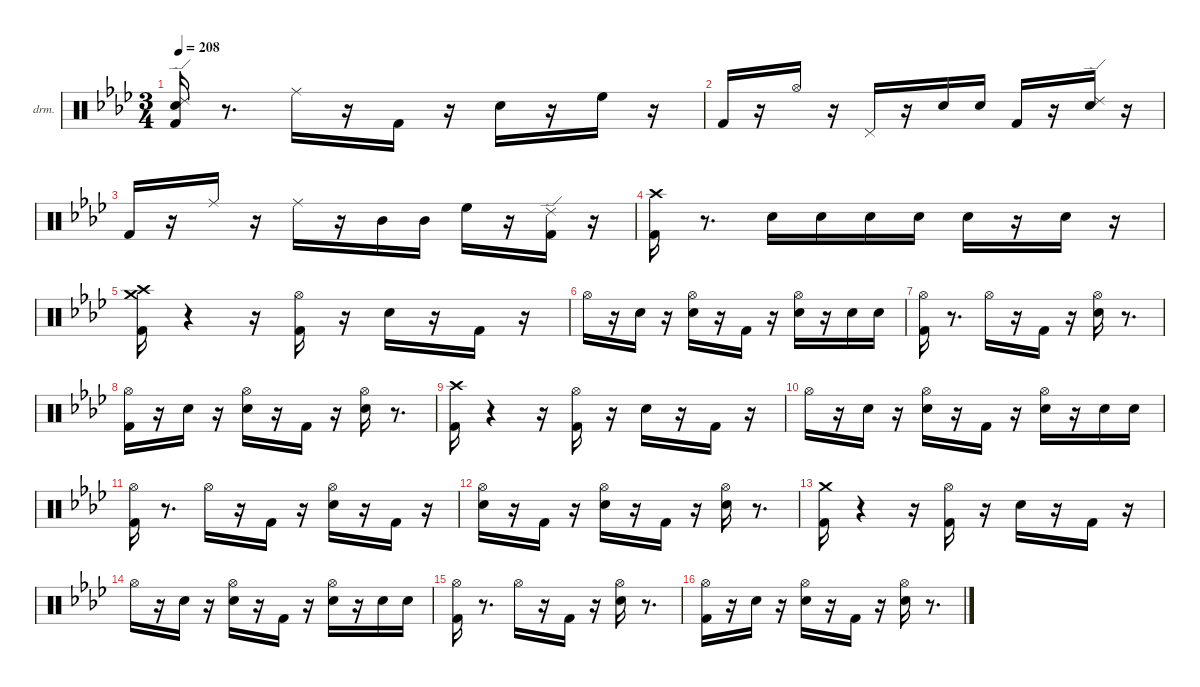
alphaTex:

\hideDynamics
\bracketExtendMode nobrackets
\firstSystemTrackNameOrientation horizontal
\otherSystemsTrackNameOrientation horizontal
\track ("EZdrummer 3" "drm.") {instrument percussion}
\staff {score}
\articulation defaults
\ts (3 4)
\tempo 208
\clef neutral
\ks fminor
("Kick (hit) 2"{acc forcenatural} "Snare (hit) 2"{acc forcenatural} "Ride (edge) 2"{acc forcenatural}).16{dy ff beam Up} r.8{d beam Up} "Ride (middle)"{acc b}.16{beam Down} r.16{beam Down} "Kick (hit) 2"{acc forcenatural}.16{beam Up} r.16{beam Up} "Snare (hit) 2"{acc forcenatural}.16{beam Down} r.16{beam Down} "High Floor Tom (hit)"{acc forcenatural}.16{beam Down} r.16{beam Down} |
"Kick (hit) 2"{acc forcenatural}.16{beam Up} r.16{beam Up} "Hi-Hat (open)"{acc b}.16{dy fff beam Down} r.16{beam Down} "Pedal Hi-Hat (hit)"{acc b}.16{dy ff beam Up} r.16{beam Up} "Snare (hit) 2"{acc forcenatural}.16{dy f beam Down} "Snare (hit) 2"{acc forcenatural}.16{dy pp beam Down} "Kick (hit) 2"{acc forcenatural}.16{dy ff beam Up} r.16{beam Up} ("Snare (hit) 2"{acc forcenatural} "Ride (edge) 2"{acc forcenatural}).16{beam Down} r.16{beam Down} |
"Kick (hit) 2"{acc forcenatural}.16{dy fff beam Up} r.16{beam Up} "Ride (middle)"{acc b}.16{dy mp beam Down} r.16{beam Down} "Ride (middle)"{acc b}.16{dy fff beam Down} r.16{beam Down} "Mid Tom (hit)"{acc forcenatural}.16{dy ff beam Up} "Mid Tom (hit)"{acc forcenatural}.16{dy mf beam Up} "High Floor Tom (hit)"{acc forcenatural}.16{dy ff beam Down} r.16{beam Down} ("Kick (hit) 2"{acc forcenatural} "Ride (edge) 2"{acc forcenatural}).16{dy mp beam Up} r.16{beam Up} |
("Kick (hit) 2"{acc forcenatural} "Crash high (hit)"{acc b}).16{dy fff beam Down} r.8{d beam Down} "Snare (hit) 2"{acc forcenatural}.16{dy ff beam Down} "Snare (hit) 2"{acc forcenatural}.16{dy pp beam Down} "Snare (hit) 2"{acc forcenatural}.16{dy mp beam Down} "Snare (hit) 2"{acc forcenatural}.16{dy pp beam Down} "Snare (hit) 2"{acc forcenatural}.16{dy f beam Down} r.16{beam Down} "Snare (hit) 2"{acc forcenatural}.16{dy ff beam Down} r.16{beam Down} |
("Kick (hit) 2"{acc forcenatural} "Crash high (hit)"{acc b} "Crash medium (hit)"{acc forcenatural}).16{dy fff beam Down} r.4{beam Down} r.16{beam Down} ("Kick (hit) 2"{acc forcenatural} "Hi-Hat (open)"{acc b}).16{dy ff beam Down} r.16{beam Down} "Snare (hit) 2"{acc forcenatural}.16{beam Down} r.16{beam Down} "Kick (hit) 2"{acc forcenatural}.16{beam Up} r.16{beam Up} |
"Hi-Hat (open)"{acc b}.16{beam Down} r.16{beam Down} "Snare (hit) 2"{acc forcenatural}.16{dy mf beam Down} r.16{beam Down} ("Snare (hit) 2"{acc forcenatural} "Hi-Hat (open)"{acc b}).16{dy pp beam Down} r.16{beam Down} "Kick (hit) 2"{acc forcenatural}.16{dy ff beam Up} r.16{beam Up} ("Snare (hit) 2"{acc forcenatural} "Hi-Hat (open)"{acc b}).16{dy fff beam Down} r.16{beam Down} "Snare (hit) 2"{acc forcenatural}.16{dy mp beam Down} "Snare (hit) 2"{acc forcenatural}.16{dy ppp beam Down} |
("Kick (hit) 2"{acc forcenatural} "Hi-Hat (open)"{acc b}).16{dy fff beam Down} r.8{d beam Down} "Hi-Hat (open)"{acc b}.16{dy mp beam Down} r.16{beam Down} "Kick (hit) 2"{acc forcenatural}.16{dy ff beam Up} r.16{beam Up} ("Snare (hit) 2"{acc forcenatural} "Hi-Hat (open)"{acc b}).16{beam Down} r.8{d beam Down} |
("Kick (hit) 2"{acc forcenatural} "Hi-Hat (open)"{acc b}).16{beam Down} r.16{beam Down} "Snare (hit) 2"{acc forcenatural}.16{beam Down} r.16{beam Down} ("Snare (hit) 2"{acc forcenatural} "Hi-Hat (open)"{acc b}).16{dy p beam Down} r.16{beam Down} "Kick (hit) 2"{acc forcenatural}.16{dy ff beam Up} r.16{beam Up} ("Snare (hit) 2"{acc forcenatural} "Hi-Hat (open)"{acc b}).16{beam Down} r.8{d beam Down} |
("Kick (hit) 2"{acc forcenatural} "Crash high (hit)"{acc b}).16{dy fff beam Down} r.4{beam Down} r.16{beam Down} ("Kick (hit) 2"{acc forcenatural} "Hi-Hat (open)"{acc b}).16{dy ff beam Down} r.16{beam Down} "Snare (hit) 2"{acc forcenatural}.16{beam Down} r.16{beam Down} "Kick (hit) 2"{acc forcenatural}.16{beam Up} r.16{beam Up} |
"Hi-Hat (open)"{acc b}.16{beam Down} r.16{beam Down} "Snare (hit) 2"{acc forcenatural}.16{dy mf beam Down} r.16{beam Down} ("Snare (hit) 2"{acc forcenatural} "Hi-Hat (open)"{acc b}).16{dy pp beam Down} r.16{beam Down} "Kick (hit) 2"{acc forcenatural}.16{dy ff beam Up} r.16{beam Up} ("Snare (hit) 2"{acc forcenatural} "Hi-Hat (open)"{acc b}).16{dy fff beam Down} r.16{beam Down} "Snare (hit) 2"{acc forcenatural}.16{dy mp beam Down} "Snare (hit) 2"{acc forcenatural}.16{dy ppp beam Down} |
("Kick (hit) 2"{acc forcenatural} "Hi-Hat (open)"{acc b}).16{dy fff beam Down} r.8{d beam Down} "Hi-Hat (open)"{acc b}.16{dy mp beam Down} r.16{beam Down} "Kick (hit) 2"{acc forcenatural}.16{dy ff beam Up} r.16{beam Up} ("Snare (hit) 2"{acc forcenatural} "Hi-Hat (open)"{acc b}).16{beam Down} r.16{beam Down} "Kick (hit) 2"{acc forcenatural}.16{beam Up} r.16{beam Up} |
("Snare (hit) 2"{acc forcenatural} "Hi-Hat (open)"{acc b}).16{beam Down} r.16{beam Down} "Kick (hit) 2"{acc forcenatural}.16{beam Up} r.16{beam Up} ("Snare (hit) 2"{acc forcenatural} "Hi-Hat (open)"{acc b}).16{beam Down} r.16{beam Down} "Kick (hit) 2"{acc forcenatural}.16{beam Up} r.16{beam Up} ("Snare (hit) 2"{acc forcenatural} "Hi-Hat (open)"{acc b}).16{dy fff beam Down} r.8{d beam Down} |
("Kick (hit) 2"{acc forcenatural} "Crash medium (hit)"{acc forcenatural}).16{beam Down} r.4{beam Down} r.16{beam Down} ("Kick (hit) 2"{acc forcenatural} "Hi-Hat (open)"{acc b}).16{dy ff beam Down} r.16{beam Down} "Snare (hit) 2"{acc forcenatural}.16{beam Down} r.16{beam Down} "Kick (hit) 2"{acc forcenatural}.16{beam Up} r.16{beam Up} |
"Hi-Hat (open)"{acc b}.16{beam Down} r.16{beam Down} "Snare (hit) 2"{acc forcenatural}.16{dy mf beam Down} r.16{beam Down} ("Snare (hit) 2"{acc forcenatural} "Hi-Hat (open)"{acc b}).16{dy pp beam Down} r.16{beam Down} "Kick (hit) 2"{acc forcenatural}.16{dy ff beam Up} r.16{beam Up} ("Snare (hit) 2"{acc forcenatural} "Hi-Hat (open)"{acc b}).16{dy fff beam Down} r.16{beam Down} "Snare (hit) 2"{acc forcenatural}.16{dy mp beam Down} "Snare (hit) 2"{acc forcenatural}.16{dy ppp beam Down} |
("Kick (hit) 2"{acc forcenatural} "Hi-Hat (open)"{acc b}).16{dy fff beam Down} r.8{d beam Down} "Hi-Hat (open)"{acc b}.16{dy mp beam Down} r.16{beam Down} "Kick (hit) 2"{acc forcenatural}.16{dy ff beam Up} r.16{beam Up} ("Snare (hit) 2"{acc forcenatural} "Hi-Hat (open)"{acc b}).16{beam Down} r.8{d beam Down} |
("Kick (hit) 2"{acc forcenatural} "Hi-Hat (open)"{acc b}).16{beam Down} r.16{beam Down} "Snare (hit) 2"{acc forcenatural}.16{beam Down} r.16{beam Down} ("Snare (hit) 2"{acc forcenatural} "Hi-Hat (open)"{acc b}).16{dy p beam Down} r.16{beam Down} "Kick (hit) 2"{acc forcenatural}.16{dy ff beam Up} r.16{beam Up} ("Snare (hit) 2"{acc forcenatural} "Hi-Hat (open)"{acc b}).16{beam Down} r.8{d beam Down}
